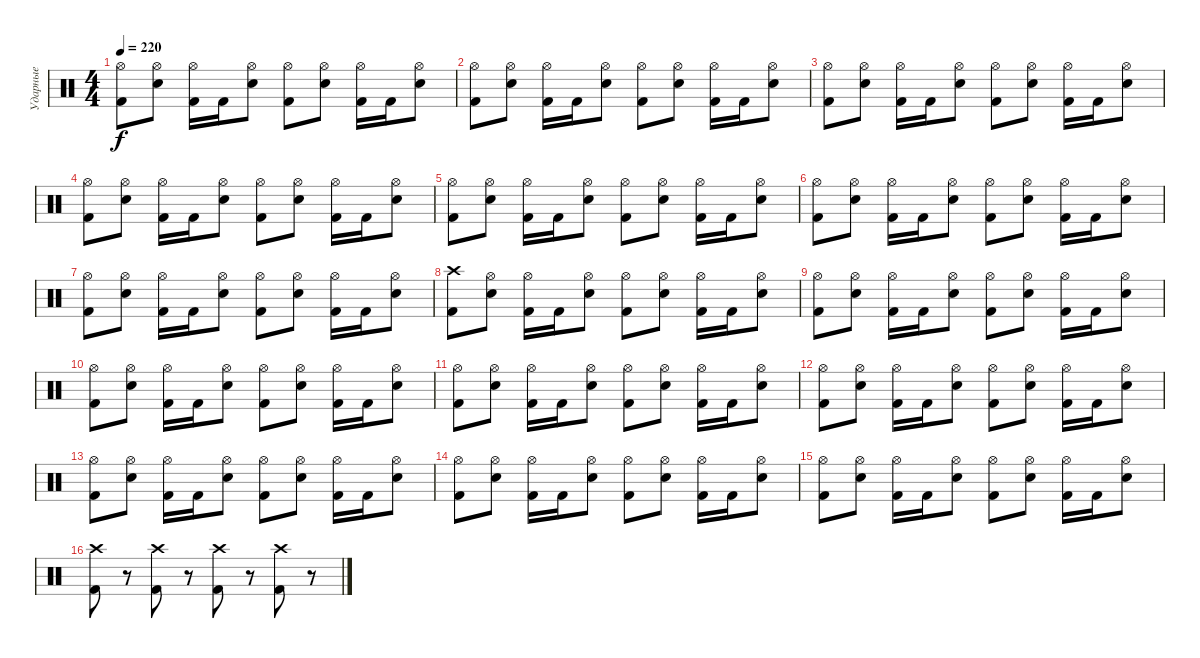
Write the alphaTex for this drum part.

\track ("Ударные" "Ударные") {instrument percussion}
\staff {score}
\articulation defaults
\ts (4 4)
\tempo 220
\clef neutral
\ks c
("Hi-Hat (open)" "Kick (hit) 2").8{dy f} ("Hi-Hat (open)" "Electric Snare (hit)").8 ("Hi-Hat (open)" "Kick (hit) 2").16 "Kick (hit) 2".16 ("Hi-Hat (open)" "Electric Snare (hit)").8 ("Hi-Hat (open)" "Kick (hit) 2").8 ("Hi-Hat (open)" "Electric Snare (hit)").8 ("Hi-Hat (open)" "Kick (hit) 2").16 "Kick (hit) 2".16 ("Hi-Hat (open)" "Electric Snare (hit)").8 |
("Hi-Hat (open)" "Kick (hit) 2").8 ("Hi-Hat (open)" "Electric Snare (hit)").8 ("Hi-Hat (open)" "Kick (hit) 2").16 "Kick (hit) 2".16 ("Hi-Hat (open)" "Electric Snare (hit)").8 ("Hi-Hat (open)" "Kick (hit) 2").8 ("Hi-Hat (open)" "Electric Snare (hit)").8 ("Hi-Hat (open)" "Kick (hit) 2").16 "Kick (hit) 2".16 ("Hi-Hat (open)" "Electric Snare (hit)").8 |
("Hi-Hat (open)" "Kick (hit) 2").8 ("Hi-Hat (open)" "Electric Snare (hit)").8 ("Hi-Hat (open)" "Kick (hit) 2").16 "Kick (hit) 2".16 ("Hi-Hat (open)" "Electric Snare (hit)").8 ("Hi-Hat (open)" "Kick (hit) 2").8 ("Hi-Hat (open)" "Electric Snare (hit)").8 ("Hi-Hat (open)" "Kick (hit) 2").16 "Kick (hit) 2".16 ("Hi-Hat (open)" "Electric Snare (hit)").8 |
("Hi-Hat (open)" "Kick (hit) 2").8 ("Hi-Hat (open)" "Electric Snare (hit)").8 ("Hi-Hat (open)" "Kick (hit) 2").16 "Kick (hit) 2".16 ("Hi-Hat (open)" "Electric Snare (hit)").8 ("Hi-Hat (open)" "Kick (hit) 2").8 ("Hi-Hat (open)" "Electric Snare (hit)").8 ("Hi-Hat (open)" "Kick (hit) 2").16 "Kick (hit) 2".16 ("Hi-Hat (open)" "Electric Snare (hit)").8 |
("Hi-Hat (open)" "Kick (hit) 2").8 ("Hi-Hat (open)" "Electric Snare (hit)").8 ("Hi-Hat (open)" "Kick (hit) 2").16 "Kick (hit) 2".16 ("Hi-Hat (open)" "Electric Snare (hit)").8 ("Hi-Hat (open)" "Kick (hit) 2").8 ("Hi-Hat (open)" "Electric Snare (hit)").8 ("Hi-Hat (open)" "Kick (hit) 2").16 "Kick (hit) 2".16 ("Hi-Hat (open)" "Electric Snare (hit)").8 |
("Hi-Hat (open)" "Kick (hit) 2").8 ("Hi-Hat (open)" "Electric Snare (hit)").8 ("Hi-Hat (open)" "Kick (hit) 2").16 "Kick (hit) 2".16 ("Hi-Hat (open)" "Electric Snare (hit)").8 ("Hi-Hat (open)" "Kick (hit) 2").8 ("Hi-Hat (open)" "Electric Snare (hit)").8 ("Hi-Hat (open)" "Kick (hit) 2").16 "Kick (hit) 2".16 ("Hi-Hat (open)" "Electric Snare (hit)").8 |
("Hi-Hat (open)" "Kick (hit) 2").8 ("Hi-Hat (open)" "Electric Snare (hit)").8 ("Hi-Hat (open)" "Kick (hit) 2").16 "Kick (hit) 2".16 ("Hi-Hat (open)" "Electric Snare (hit)").8 ("Hi-Hat (open)" "Kick (hit) 2").8 ("Hi-Hat (open)" "Electric Snare (hit)").8 ("Hi-Hat (open)" "Kick (hit) 2").16 "Kick (hit) 2".16 ("Hi-Hat (open)" "Electric Snare (hit)").8 |
("Crash high (hit)" "Kick (hit) 2").8 ("Hi-Hat (open)" "Electric Snare (hit)").8 ("Hi-Hat (open)" "Kick (hit) 2").16 "Kick (hit) 2".16 ("Hi-Hat (open)" "Electric Snare (hit)").8 ("Hi-Hat (open)" "Kick (hit) 2").8 ("Hi-Hat (open)" "Electric Snare (hit)").8 ("Hi-Hat (open)" "Kick (hit) 2").16 "Kick (hit) 2".16 ("Hi-Hat (open)" "Electric Snare (hit)").8 |
("Hi-Hat (open)" "Kick (hit) 2").8 ("Hi-Hat (open)" "Electric Snare (hit)").8 ("Hi-Hat (open)" "Kick (hit) 2").16 "Kick (hit) 2".16 ("Hi-Hat (open)" "Electric Snare (hit)").8 ("Hi-Hat (open)" "Kick (hit) 2").8 ("Hi-Hat (open)" "Electric Snare (hit)").8 ("Hi-Hat (open)" "Kick (hit) 2").16 "Kick (hit) 2".16 ("Hi-Hat (open)" "Electric Snare (hit)").8 |
("Hi-Hat (open)" "Kick (hit) 2").8 ("Hi-Hat (open)" "Electric Snare (hit)").8 ("Hi-Hat (open)" "Kick (hit) 2").16 "Kick (hit) 2".16 ("Hi-Hat (open)" "Electric Snare (hit)").8 ("Hi-Hat (open)" "Kick (hit) 2").8 ("Hi-Hat (open)" "Electric Snare (hit)").8 ("Hi-Hat (open)" "Kick (hit) 2").16 "Kick (hit) 2".16 ("Hi-Hat (open)" "Electric Snare (hit)").8 |
("Hi-Hat (open)" "Kick (hit) 2").8 ("Hi-Hat (open)" "Electric Snare (hit)").8 ("Hi-Hat (open)" "Kick (hit) 2").16 "Kick (hit) 2".16 ("Hi-Hat (open)" "Electric Snare (hit)").8 ("Hi-Hat (open)" "Kick (hit) 2").8 ("Hi-Hat (open)" "Electric Snare (hit)").8 ("Hi-Hat (open)" "Kick (hit) 2").16 "Kick (hit) 2".16 ("Hi-Hat (open)" "Electric Snare (hit)").8 |
("Hi-Hat (open)" "Kick (hit) 2").8 ("Hi-Hat (open)" "Electric Snare (hit)").8 ("Hi-Hat (open)" "Kick (hit) 2").16 "Kick (hit) 2".16 ("Hi-Hat (open)" "Electric Snare (hit)").8 ("Hi-Hat (open)" "Kick (hit) 2").8 ("Hi-Hat (open)" "Electric Snare (hit)").8 ("Hi-Hat (open)" "Kick (hit) 2").16 "Kick (hit) 2".16 ("Hi-Hat (open)" "Electric Snare (hit)").8 |
("Hi-Hat (open)" "Kick (hit) 2").8 ("Hi-Hat (open)" "Electric Snare (hit)").8 ("Hi-Hat (open)" "Kick (hit) 2").16 "Kick (hit) 2".16 ("Hi-Hat (open)" "Electric Snare (hit)").8 ("Hi-Hat (open)" "Kick (hit) 2").8 ("Hi-Hat (open)" "Electric Snare (hit)").8 ("Hi-Hat (open)" "Kick (hit) 2").16 "Kick (hit) 2".16 ("Hi-Hat (open)" "Electric Snare (hit)").8 |
("Hi-Hat (open)" "Kick (hit) 2").8 ("Hi-Hat (open)" "Electric Snare (hit)").8 ("Hi-Hat (open)" "Kick (hit) 2").16 "Kick (hit) 2".16 ("Hi-Hat (open)" "Electric Snare (hit)").8 ("Hi-Hat (open)" "Kick (hit) 2").8 ("Hi-Hat (open)" "Electric Snare (hit)").8 ("Hi-Hat (open)" "Kick (hit) 2").16 "Kick (hit) 2".16 ("Hi-Hat (open)" "Electric Snare (hit)").8 |
("Hi-Hat (open)" "Kick (hit) 2").8 ("Hi-Hat (open)" "Electric Snare (hit)").8 ("Hi-Hat (open)" "Kick (hit) 2").16 "Kick (hit) 2".16 ("Hi-Hat (open)" "Electric Snare (hit)").8 ("Hi-Hat (open)" "Kick (hit) 2").8 ("Hi-Hat (open)" "Electric Snare (hit)").8 ("Hi-Hat (open)" "Kick (hit) 2").16 "Kick (hit) 2".16 ("Hi-Hat (open)" "Electric Snare (hit)").8 |
("Crash high (hit)" "Kick (hit) 2").8 r.8 ("Crash high (hit)" "Kick (hit) 2").8 r.8 ("Crash high (hit)" "Kick (hit) 2").8 r.8 ("Crash high (hit)" "Kick (hit) 2").8 r.8
